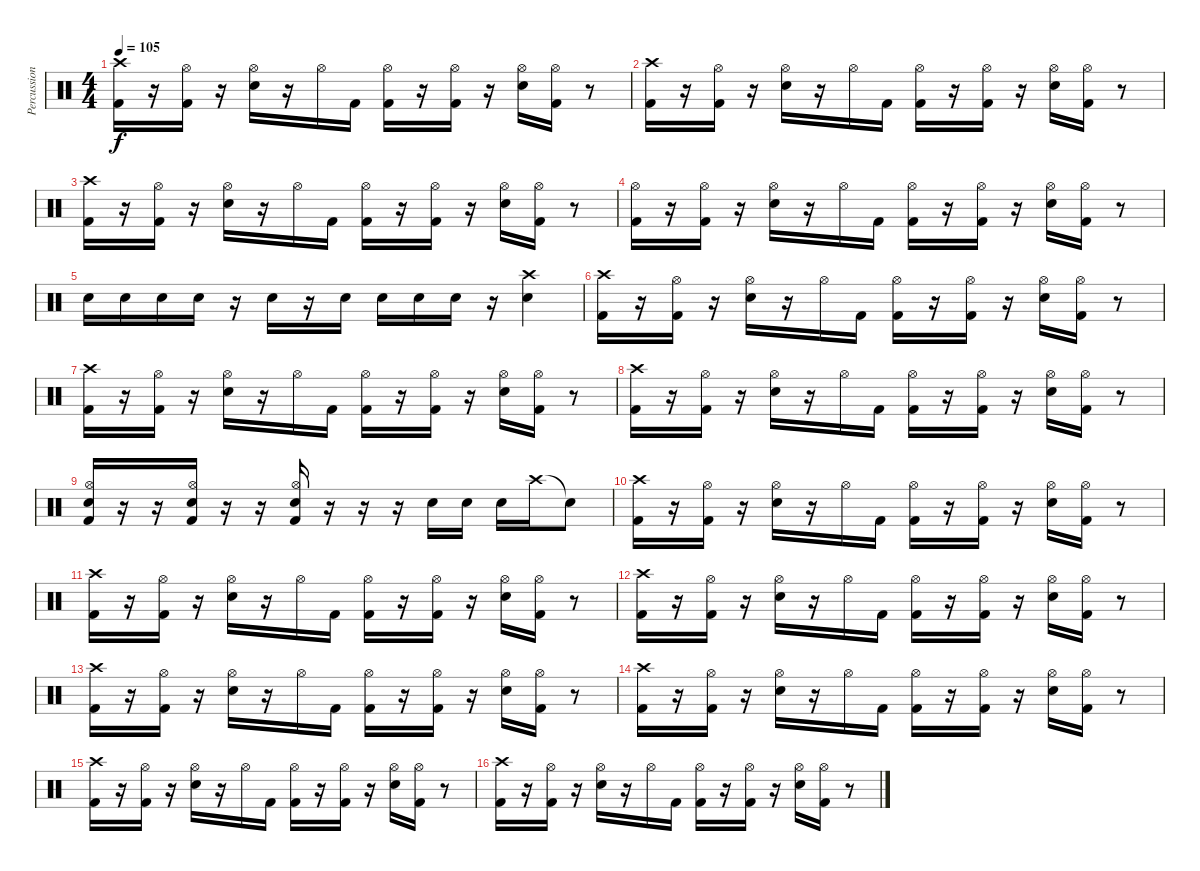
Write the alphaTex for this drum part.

\track ("Percussions" "Percussion") {instrument percussion}
\staff {score}
\articulation defaults
\ts (4 4)
\tempo 105
\clef neutral
\ks c
("Crash high (hit)" "Kick (hit) 2").16{dy f} r.16 ("Hi-Hat (open)" "Kick (hit) 2").16 r.16 ("Hi-Hat (open)" "Snare (hit) 2").16 r.16 "Hi-Hat (open)".16 "Kick (hit) 2".16 ("Kick (hit) 2" "Hi-Hat (open)").16 r.16 ("Kick (hit) 2" "Hi-Hat (open)").16 r.16 ("Hi-Hat (open)" "Snare (hit) 2").16 ("Kick (hit) 2" "Hi-Hat (open)").16 r.8 |
("Crash high (hit)" "Kick (hit) 2").16 r.16 ("Hi-Hat (open)" "Kick (hit) 2").16 r.16 ("Hi-Hat (open)" "Snare (hit) 2").16 r.16 "Hi-Hat (open)".16 "Kick (hit) 2".16 ("Kick (hit) 2" "Hi-Hat (open)").16 r.16 ("Kick (hit) 2" "Hi-Hat (open)").16 r.16 ("Hi-Hat (open)" "Snare (hit) 2").16 ("Kick (hit) 2" "Hi-Hat (open)").16 r.8 |
("Crash high (hit)" "Kick (hit) 2").16 r.16 ("Hi-Hat (open)" "Kick (hit) 2").16 r.16 ("Hi-Hat (open)" "Snare (hit) 2").16 r.16 "Hi-Hat (open)".16 "Kick (hit) 2".16 ("Kick (hit) 2" "Hi-Hat (open)").16 r.16 ("Kick (hit) 2" "Hi-Hat (open)").16 r.16 ("Hi-Hat (open)" "Snare (hit) 2").16 ("Kick (hit) 2" "Hi-Hat (open)").16 r.8 |
("Hi-Hat (open)" "Kick (hit) 2").16 r.16 ("Hi-Hat (open)" "Kick (hit) 2").16 r.16 ("Hi-Hat (open)" "Snare (hit) 2").16 r.16 "Hi-Hat (open)".16 "Kick (hit) 2".16 ("Kick (hit) 2" "Hi-Hat (open)").16 r.16 ("Kick (hit) 2" "Hi-Hat (open)").16 r.16 ("Hi-Hat (open)" "Snare (hit) 2").16 ("Kick (hit) 2" "Hi-Hat (open)").16 r.8 |
"Snare (hit) 2".16 "Snare (hit) 2".16 "Snare (hit) 2".16 "Snare (hit) 2".16 r.16 "Snare (hit) 2".16 r.16 "Snare (hit) 2".16 "Snare (hit) 2".16 "Snare (hit) 2".16 "Snare (hit) 2".16 r.16 ("Snare (hit) 2" "Crash high (hit)").4 |
("Crash high (hit)" "Kick (hit) 2").16 r.16 ("Hi-Hat (open)" "Kick (hit) 2").16 r.16 ("Hi-Hat (open)" "Snare (hit) 2").16 r.16 "Hi-Hat (open)".16 "Kick (hit) 2".16 ("Kick (hit) 2" "Hi-Hat (open)").16 r.16 ("Kick (hit) 2" "Hi-Hat (open)").16 r.16 ("Hi-Hat (open)" "Snare (hit) 2").16 ("Kick (hit) 2" "Hi-Hat (open)").16 r.8 |
("Crash high (hit)" "Kick (hit) 2").16 r.16 ("Hi-Hat (open)" "Kick (hit) 2").16 r.16 ("Hi-Hat (open)" "Snare (hit) 2").16 r.16 "Hi-Hat (open)".16 "Kick (hit) 2".16 ("Kick (hit) 2" "Hi-Hat (open)").16 r.16 ("Kick (hit) 2" "Hi-Hat (open)").16 r.16 ("Hi-Hat (open)" "Snare (hit) 2").16 ("Kick (hit) 2" "Hi-Hat (open)").16 r.8 |
("Crash high (hit)" "Kick (hit) 2").16 r.16 ("Hi-Hat (open)" "Kick (hit) 2").16 r.16 ("Hi-Hat (open)" "Snare (hit) 2").16 r.16 "Hi-Hat (open)".16 "Kick (hit) 2".16 ("Kick (hit) 2" "Hi-Hat (open)").16 r.16 ("Kick (hit) 2" "Hi-Hat (open)").16 r.16 ("Hi-Hat (open)" "Snare (hit) 2").16 ("Kick (hit) 2" "Hi-Hat (open)").16 r.8 |
("Kick (hit) 2" "Snare (hit) 2" "Hi-Hat (open)").16 r.16 r.16 ("Kick (hit) 2" "Snare (hit) 2" "Hi-Hat (open)").16 r.16 r.16 ("Kick (hit) 2" "Snare (hit) 2" "Hi-Hat (open)").16 r.16 r.16 r.16 "Snare (hit) 2".16 "Snare (hit) 2".16 "Snare (hit) 2".16 "Crash high (hit)".16 "Snare (hit)"{t}.8 |
("Crash high (hit)" "Kick (hit) 2").16 r.16 ("Hi-Hat (open)" "Kick (hit) 2").16 r.16 ("Hi-Hat (open)" "Snare (hit) 2").16 r.16 "Hi-Hat (open)".16 "Kick (hit) 2".16 ("Kick (hit) 2" "Hi-Hat (open)").16 r.16 ("Kick (hit) 2" "Hi-Hat (open)").16 r.16 ("Hi-Hat (open)" "Snare (hit) 2").16 ("Kick (hit) 2" "Hi-Hat (open)").16 r.8 |
("Crash high (hit)" "Kick (hit) 2").16 r.16 ("Hi-Hat (open)" "Kick (hit) 2").16 r.16 ("Hi-Hat (open)" "Snare (hit) 2").16 r.16 "Hi-Hat (open)".16 "Kick (hit) 2".16 ("Kick (hit) 2" "Hi-Hat (open)").16 r.16 ("Kick (hit) 2" "Hi-Hat (open)").16 r.16 ("Hi-Hat (open)" "Snare (hit) 2").16 ("Kick (hit) 2" "Hi-Hat (open)").16 r.8 |
("Crash high (hit)" "Kick (hit) 2").16 r.16 ("Hi-Hat (open)" "Kick (hit) 2").16 r.16 ("Hi-Hat (open)" "Snare (hit) 2").16 r.16 "Hi-Hat (open)".16 "Kick (hit) 2".16 ("Kick (hit) 2" "Hi-Hat (open)").16 r.16 ("Kick (hit) 2" "Hi-Hat (open)").16 r.16 ("Hi-Hat (open)" "Snare (hit) 2").16 ("Kick (hit) 2" "Hi-Hat (open)").16 r.8 |
("Crash high (hit)" "Kick (hit) 2").16 r.16 ("Hi-Hat (open)" "Kick (hit) 2").16 r.16 ("Hi-Hat (open)" "Snare (hit) 2").16 r.16 "Hi-Hat (open)".16 "Kick (hit) 2".16 ("Kick (hit) 2" "Hi-Hat (open)").16 r.16 ("Kick (hit) 2" "Hi-Hat (open)").16 r.16 ("Hi-Hat (open)" "Snare (hit) 2").16 ("Kick (hit) 2" "Hi-Hat (open)").16 r.8 |
("Crash high (hit)" "Kick (hit) 2").16 r.16 ("Hi-Hat (open)" "Kick (hit) 2").16 r.16 ("Hi-Hat (open)" "Snare (hit) 2").16 r.16 "Hi-Hat (open)".16 "Kick (hit) 2".16 ("Kick (hit) 2" "Hi-Hat (open)").16 r.16 ("Kick (hit) 2" "Hi-Hat (open)").16 r.16 ("Hi-Hat (open)" "Snare (hit) 2").16 ("Kick (hit) 2" "Hi-Hat (open)").16 r.8 |
("Crash high (hit)" "Kick (hit) 2").16 r.16 ("Hi-Hat (open)" "Kick (hit) 2").16 r.16 ("Hi-Hat (open)" "Snare (hit) 2").16 r.16 "Hi-Hat (open)".16 "Kick (hit) 2".16 ("Kick (hit) 2" "Hi-Hat (open)").16 r.16 ("Kick (hit) 2" "Hi-Hat (open)").16 r.16 ("Hi-Hat (open)" "Snare (hit) 2").16 ("Kick (hit) 2" "Hi-Hat (open)").16 r.8 |
("Crash high (hit)" "Kick (hit) 2").16 r.16 ("Hi-Hat (open)" "Kick (hit) 2").16 r.16 ("Hi-Hat (open)" "Snare (hit) 2").16 r.16 "Hi-Hat (open)".16 "Kick (hit) 2".16 ("Kick (hit) 2" "Hi-Hat (open)").16 r.16 ("Kick (hit) 2" "Hi-Hat (open)").16 r.16 ("Hi-Hat (open)" "Snare (hit) 2").16 ("Kick (hit) 2" "Hi-Hat (open)").16 r.8
